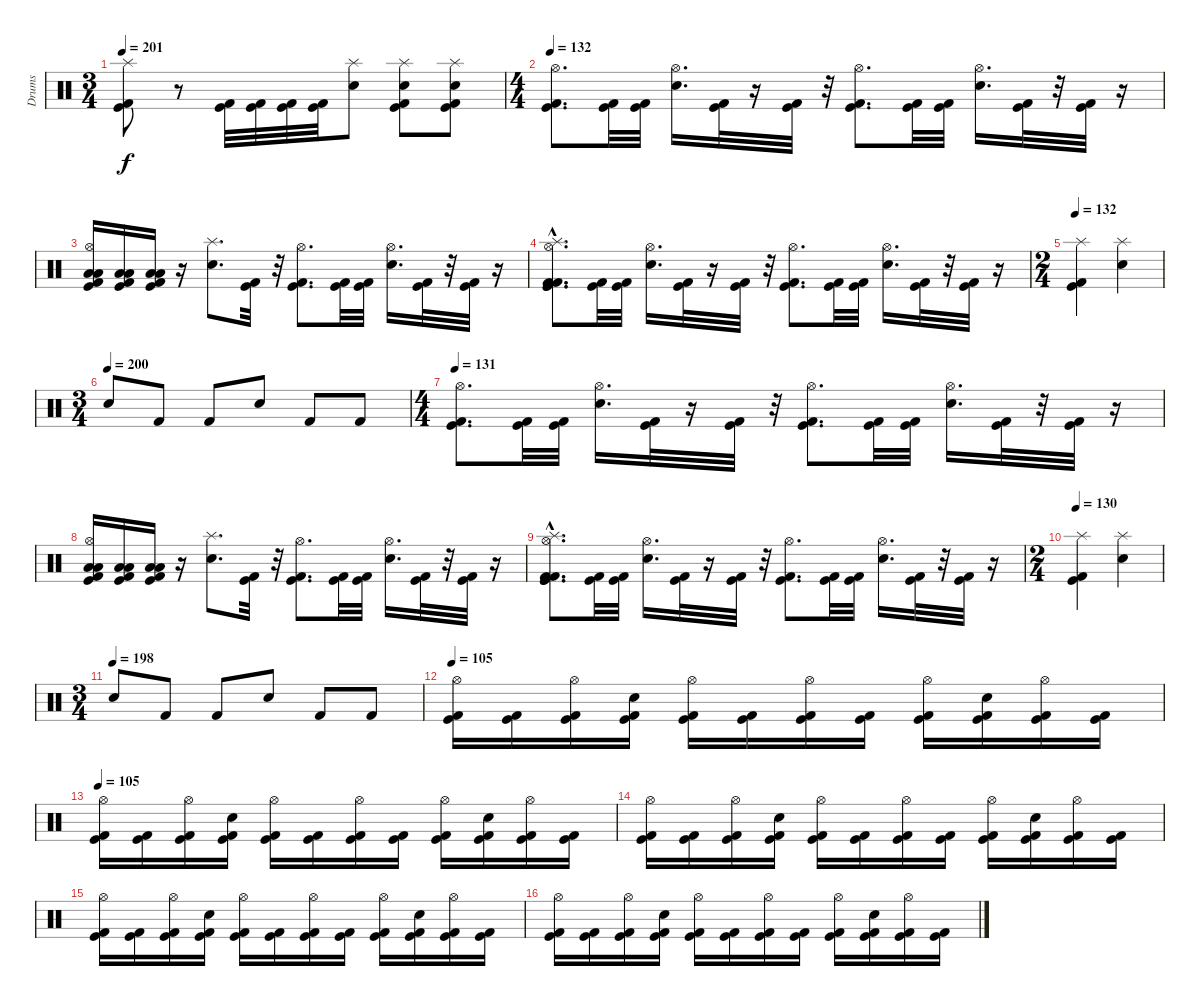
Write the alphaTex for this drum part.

\track ("Drums" "Drums") {instrument percussion}
\staff {score}
\articulation defaults
\ts (3 4)
\tempo 201
\clef neutral
\ks c
("Splash (hit)" "Kick (hit)" "Kick (hit) 2").8{dy f} r.8 ("Kick (hit) 2" "Kick (hit)").32 ("Kick (hit) 2" "Kick (hit)").32 ("Kick (hit) 2" "Kick (hit)").32 ("Kick (hit) 2" "Kick (hit)").32 ("Electric Snare (hit)" "Splash (hit)").8 ("Electric Snare (hit)" "Splash (hit)" "Kick (hit)" "Kick (hit) 2").8 ("Electric Snare (hit)" "Splash (hit)" "Kick (hit)" "Kick (hit) 2").8 |
\ts (4 4)
\tempo 132
("Kick (hit)" "Kick (hit) 2" "Hi-Hat (open)").8{d} ("Kick (hit)" "Kick (hit) 2").32 ("Kick (hit)" "Kick (hit) 2").32 ("Snare (hit) 2" "Hi-Hat (open)").16{d} ("Kick (hit)" "Kick (hit) 2").32 r.16 ("Kick (hit)" "Kick (hit) 2").32 r.32 ("Kick (hit)" "Kick (hit) 2" "Hi-Hat (open)").8{d} ("Kick (hit)" "Kick (hit) 2").32 ("Kick (hit)" "Kick (hit) 2").32 ("Electric Snare (hit)" "Hi-Hat (open)").16{d} ("Kick (hit)" "Kick (hit) 2").32 r.32 ("Kick (hit)" "Kick (hit) 2").32 r.16 |
("Low Tom (hit)" "Low Floor Tom (hit)" "Kick (hit)" "Kick (hit) 2" "Hi-Hat (open)").16 ("Low Floor Tom (hit)" "Low Tom (hit)" "Kick (hit)" "Kick (hit) 2").16 ("Low Tom (hit)" "Low Floor Tom (hit)" "Kick (hit)" "Kick (hit) 2").16 r.16 ("Splash (hit)" "Snare (hit) 2").8{d} ("Kick (hit)" "Kick (hit) 2").32 r.32 ("Kick (hit)" "Kick (hit) 2" "Hi-Hat (open)").8{d} ("Kick (hit)" "Kick (hit) 2").32 ("Kick (hit)" "Kick (hit) 2").32 ("Electric Snare (hit)" "Hi-Hat (open)").16{d} ("Kick (hit)" "Kick (hit) 2").32 r.32 ("Kick (hit)" "Kick (hit) 2").32 r.16 |
("Kick (hit)"{hac} "Splash (hit)" "Kick (hit) 2"{hac} "Kick (hit)" "Kick (hit) 2" "Hi-Hat (open)").8{d} ("Kick (hit)" "Kick (hit) 2").32 ("Kick (hit)" "Kick (hit) 2").32 ("Snare (hit) 2" "Hi-Hat (open)").16{d} ("Kick (hit)" "Kick (hit) 2").32 r.16 ("Kick (hit)" "Kick (hit) 2").32 r.32 ("Kick (hit)" "Kick (hit) 2" "Hi-Hat (open)").8{d} ("Kick (hit)" "Kick (hit) 2").32 ("Kick (hit)" "Kick (hit) 2").32 ("Electric Snare (hit)" "Hi-Hat (open)").16{d} ("Kick (hit)" "Kick (hit) 2").32 r.32 ("Kick (hit)" "Kick (hit) 2").32 r.16 |
\ts (2 4)
\tempo 132
("Kick (hit)" "Kick (hit) 2" "Splash (hit)").4 ("Electric Snare (hit)" "Splash (hit)").4 |
\ts (3 4)
\tempo (200)
"Electric Snare (hit)".8 "Kick (hit) 2".8 "Kick (hit) 2".8 "Electric Snare (hit)".8 "Kick (hit) 2".8 "Kick (hit) 2".8 |
\ts (4 4)
\tempo 131
("Kick (hit)" "Kick (hit) 2" "Hi-Hat (open)").8{d} ("Kick (hit)" "Kick (hit) 2").32 ("Kick (hit)" "Kick (hit) 2").32 ("Snare (hit) 2" "Hi-Hat (open)").16{d} ("Kick (hit)" "Kick (hit) 2").32 r.16 ("Kick (hit)" "Kick (hit) 2").32 r.32 ("Kick (hit)" "Kick (hit) 2" "Hi-Hat (open)").8{d} ("Kick (hit)" "Kick (hit) 2").32 ("Kick (hit)" "Kick (hit) 2").32 ("Electric Snare (hit)" "Hi-Hat (open)").16{d} ("Kick (hit)" "Kick (hit) 2").32 r.32 ("Kick (hit)" "Kick (hit) 2").32 r.16 |
("Low Tom (hit)" "Low Floor Tom (hit)" "Kick (hit)" "Kick (hit) 2" "Hi-Hat (open)").16 ("Low Floor Tom (hit)" "Low Tom (hit)" "Kick (hit)" "Kick (hit) 2").16 ("Low Tom (hit)" "Low Floor Tom (hit)" "Kick (hit)" "Kick (hit) 2").16 r.16 ("Splash (hit)" "Snare (hit) 2").8{d} ("Kick (hit)" "Kick (hit) 2").32 r.32 ("Kick (hit)" "Kick (hit) 2" "Hi-Hat (open)").8{d} ("Kick (hit)" "Kick (hit) 2").32 ("Kick (hit)" "Kick (hit) 2").32 ("Electric Snare (hit)" "Hi-Hat (open)").16{d} ("Kick (hit)" "Kick (hit) 2").32 r.32 ("Kick (hit)" "Kick (hit) 2").32 r.16 |
("Kick (hit)"{hac} "Splash (hit)" "Kick (hit) 2"{hac} "Kick (hit)" "Kick (hit) 2" "Hi-Hat (open)").8{d} ("Kick (hit)" "Kick (hit) 2").32 ("Kick (hit)" "Kick (hit) 2").32 ("Snare (hit) 2" "Hi-Hat (open)").16{d} ("Kick (hit)" "Kick (hit) 2").32 r.16 ("Kick (hit)" "Kick (hit) 2").32 r.32 ("Kick (hit)" "Kick (hit) 2" "Hi-Hat (open)").8{d} ("Kick (hit)" "Kick (hit) 2").32 ("Kick (hit)" "Kick (hit) 2").32 ("Electric Snare (hit)" "Hi-Hat (open)").16{d} ("Kick (hit)" "Kick (hit) 2").32 r.32 ("Kick (hit)" "Kick (hit) 2").32 r.16 |
\ts (2 4)
\tempo 130
("Kick (hit)" "Kick (hit) 2" "Splash (hit)").4 ("Electric Snare (hit)" "Splash (hit)").4 |
\ts (3 4)
\tempo (198)
"Electric Snare (hit)".8 "Kick (hit) 2".8 "Kick (hit) 2".8 "Electric Snare (hit)".8 "Kick (hit) 2".8 "Kick (hit) 2".8 |
\tempo 105
("Hi-Hat (open)" "Kick (hit)" "Kick (hit) 2").16 ("Kick (hit)" "Kick (hit) 2").16 ("Hi-Hat (open)" "Kick (hit)" "Kick (hit) 2").16 ("Electric Snare (hit)" "Kick (hit)" "Kick (hit) 2").16 ("Hi-Hat (open)" "Kick (hit)" "Kick (hit) 2").16 ("Kick (hit)" "Kick (hit) 2").16 ("Hi-Hat (open)" "Kick (hit)" "Kick (hit) 2").16 ("Kick (hit)" "Kick (hit) 2").16 ("Hi-Hat (open)" "Kick (hit)" "Kick (hit) 2").16 ("Electric Snare (hit)" "Kick (hit)" "Kick (hit) 2").16 ("Hi-Hat (open)" "Kick (hit)" "Kick (hit) 2").16 ("Kick (hit)" "Kick (hit) 2").16 |
\tempo 105
("Hi-Hat (open)" "Kick (hit)" "Kick (hit) 2").16 ("Kick (hit)" "Kick (hit) 2").16 ("Hi-Hat (open)" "Kick (hit)" "Kick (hit) 2").16 ("Electric Snare (hit)" "Kick (hit)" "Kick (hit) 2").16 ("Hi-Hat (open)" "Kick (hit)" "Kick (hit) 2").16 ("Kick (hit)" "Kick (hit) 2").16 ("Hi-Hat (open)" "Kick (hit)" "Kick (hit) 2").16 ("Kick (hit)" "Kick (hit) 2").16 ("Hi-Hat (open)" "Kick (hit)" "Kick (hit) 2").16 ("Electric Snare (hit)" "Kick (hit)" "Kick (hit) 2").16 ("Hi-Hat (open)" "Kick (hit)" "Kick (hit) 2").16 ("Kick (hit)" "Kick (hit) 2").16 |
("Hi-Hat (open)" "Kick (hit)" "Kick (hit) 2").16 ("Kick (hit)" "Kick (hit) 2").16 ("Hi-Hat (open)" "Kick (hit)" "Kick (hit) 2").16 ("Electric Snare (hit)" "Kick (hit)" "Kick (hit) 2").16 ("Hi-Hat (open)" "Kick (hit)" "Kick (hit) 2").16 ("Kick (hit)" "Kick (hit) 2").16 ("Hi-Hat (open)" "Kick (hit)" "Kick (hit) 2").16 ("Kick (hit)" "Kick (hit) 2").16 ("Hi-Hat (open)" "Kick (hit)" "Kick (hit) 2").16 ("Electric Snare (hit)" "Kick (hit)" "Kick (hit) 2").16 ("Hi-Hat (open)" "Kick (hit)" "Kick (hit) 2").16 ("Kick (hit)" "Kick (hit) 2").16 |
("Hi-Hat (open)" "Kick (hit)" "Kick (hit) 2").16 ("Kick (hit)" "Kick (hit) 2").16 ("Hi-Hat (open)" "Kick (hit)" "Kick (hit) 2").16 ("Electric Snare (hit)" "Kick (hit)" "Kick (hit) 2").16 ("Hi-Hat (open)" "Kick (hit)" "Kick (hit) 2").16 ("Kick (hit)" "Kick (hit) 2").16 ("Hi-Hat (open)" "Kick (hit)" "Kick (hit) 2").16 ("Kick (hit)" "Kick (hit) 2").16 ("Hi-Hat (open)" "Kick (hit)" "Kick (hit) 2").16 ("Electric Snare (hit)" "Kick (hit)" "Kick (hit) 2").16 ("Hi-Hat (open)" "Kick (hit)" "Kick (hit) 2").16 ("Kick (hit)" "Kick (hit) 2").16 |
("Hi-Hat (open)" "Kick (hit)" "Kick (hit) 2").16 ("Kick (hit)" "Kick (hit) 2").16 ("Hi-Hat (open)" "Kick (hit)" "Kick (hit) 2").16 ("Electric Snare (hit)" "Kick (hit)" "Kick (hit) 2").16 ("Hi-Hat (open)" "Kick (hit)" "Kick (hit) 2").16 ("Kick (hit)" "Kick (hit) 2").16 ("Hi-Hat (open)" "Kick (hit)" "Kick (hit) 2").16 ("Kick (hit)" "Kick (hit) 2").16 ("Hi-Hat (open)" "Kick (hit)" "Kick (hit) 2").16 ("Electric Snare (hit)" "Kick (hit)" "Kick (hit) 2").16 ("Hi-Hat (open)" "Kick (hit)" "Kick (hit) 2").16 ("Kick (hit)" "Kick (hit) 2").16
